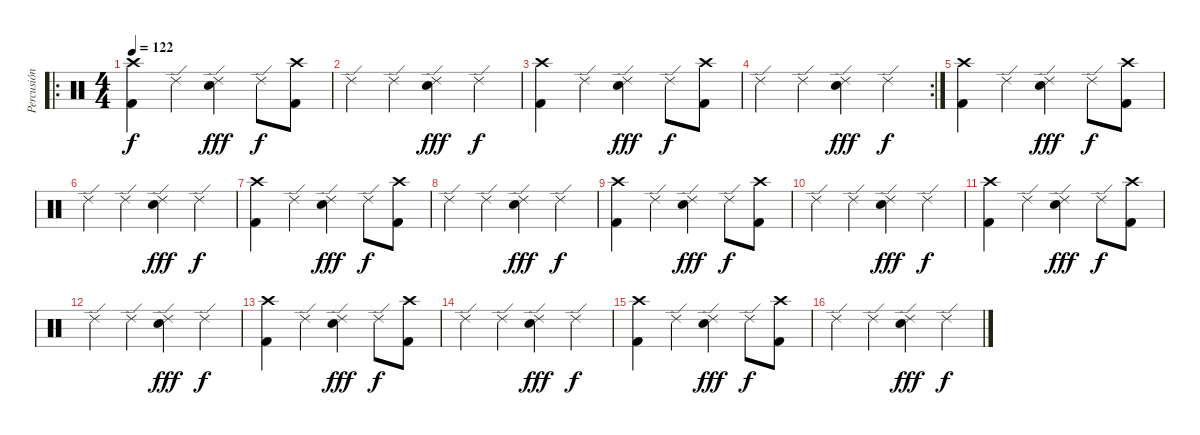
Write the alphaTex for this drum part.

\track ("Percusión" "Percusión") {instrument percussion}
\staff {score}
\articulation defaults
\ro
\ts (4 4)
\tempo 122
\clef neutral
\ks c
("Crash high (hit)" "Kick (hit) 2").4{dy f} "Ride (edge) 2".4 ("Ride (edge) 2" "Electric Snare (hit)").4{dy fff} "Ride (edge) 2".8{dy f} ("Crash high (hit)" "Kick (hit) 2").8 |
"Ride (edge) 2".4 "Ride (edge) 2".4 ("Ride (edge) 2" "Electric Snare (hit)").4{dy fff} "Ride (edge) 2".4{dy f} |
("Crash high (hit)" "Kick (hit) 2").4 "Ride (edge) 2".4 ("Ride (edge) 2" "Electric Snare (hit)").4{dy fff} "Ride (edge) 2".8{dy f} ("Crash high (hit)" "Kick (hit) 2").8 |
\rc 2 "Ride (edge) 2".4 "Ride (edge) 2".4
("Ride (edge) 2" "Electric Snare (hit)").4{dy fff} "Ride (edge) 2".4{dy f} |
("Crash high (hit)" "Kick (hit) 2").4 "Ride (edge) 2".4 ("Ride (edge) 2" "Electric Snare (hit)").4{dy fff} "Ride (edge) 2".8{dy f} ("Crash high (hit)" "Kick (hit) 2").8 |
"Ride (edge) 2".4 "Ride (edge) 2".4 ("Ride (edge) 2" "Electric Snare (hit)").4{dy fff} "Ride (edge) 2".4{dy f} |
("Crash high (hit)" "Kick (hit) 2").4 "Ride (edge) 2".4 ("Ride (edge) 2" "Electric Snare (hit)").4{dy fff} "Ride (edge) 2".8{dy f} ("Crash high (hit)" "Kick (hit) 2").8 |
"Ride (edge) 2".4 "Ride (edge) 2".4 ("Ride (edge) 2" "Electric Snare (hit)").4{dy fff} "Ride (edge) 2".4{dy f} |
("Crash high (hit)" "Kick (hit) 2").4 "Ride (edge) 2".4 ("Ride (edge) 2" "Electric Snare (hit)").4{dy fff} "Ride (edge) 2".8{dy f} ("Crash high (hit)" "Kick (hit) 2").8 |
"Ride (edge) 2".4 "Ride (edge) 2".4 ("Ride (edge) 2" "Electric Snare (hit)").4{dy fff} "Ride (edge) 2".4{dy f} |
("Crash high (hit)" "Kick (hit) 2").4 "Ride (edge) 2".4 ("Ride (edge) 2" "Electric Snare (hit)").4{dy fff} "Ride (edge) 2".8{dy f} ("Crash high (hit)" "Kick (hit) 2").8 |
"Ride (edge) 2".4 "Ride (edge) 2".4 ("Ride (edge) 2" "Electric Snare (hit)").4{dy fff} "Ride (edge) 2".4{dy f} |
("Crash high (hit)" "Kick (hit) 2").4 "Ride (edge) 2".4 ("Ride (edge) 2" "Electric Snare (hit)").4{dy fff} "Ride (edge) 2".8{dy f} ("Crash high (hit)" "Kick (hit) 2").8 |
"Ride (edge) 2".4 "Ride (edge) 2".4 ("Ride (edge) 2" "Electric Snare (hit)").4{dy fff} "Ride (edge) 2".4{dy f} |
("Crash high (hit)" "Kick (hit) 2").4 "Ride (edge) 2".4 ("Ride (edge) 2" "Electric Snare (hit)").4{dy fff} "Ride (edge) 2".8{dy f} ("Crash high (hit)" "Kick (hit) 2").8 |
"Ride (edge) 2".4 "Ride (edge) 2".4 ("Ride (edge) 2" "Electric Snare (hit)").4{dy fff} "Ride (edge) 2".4{dy f}
